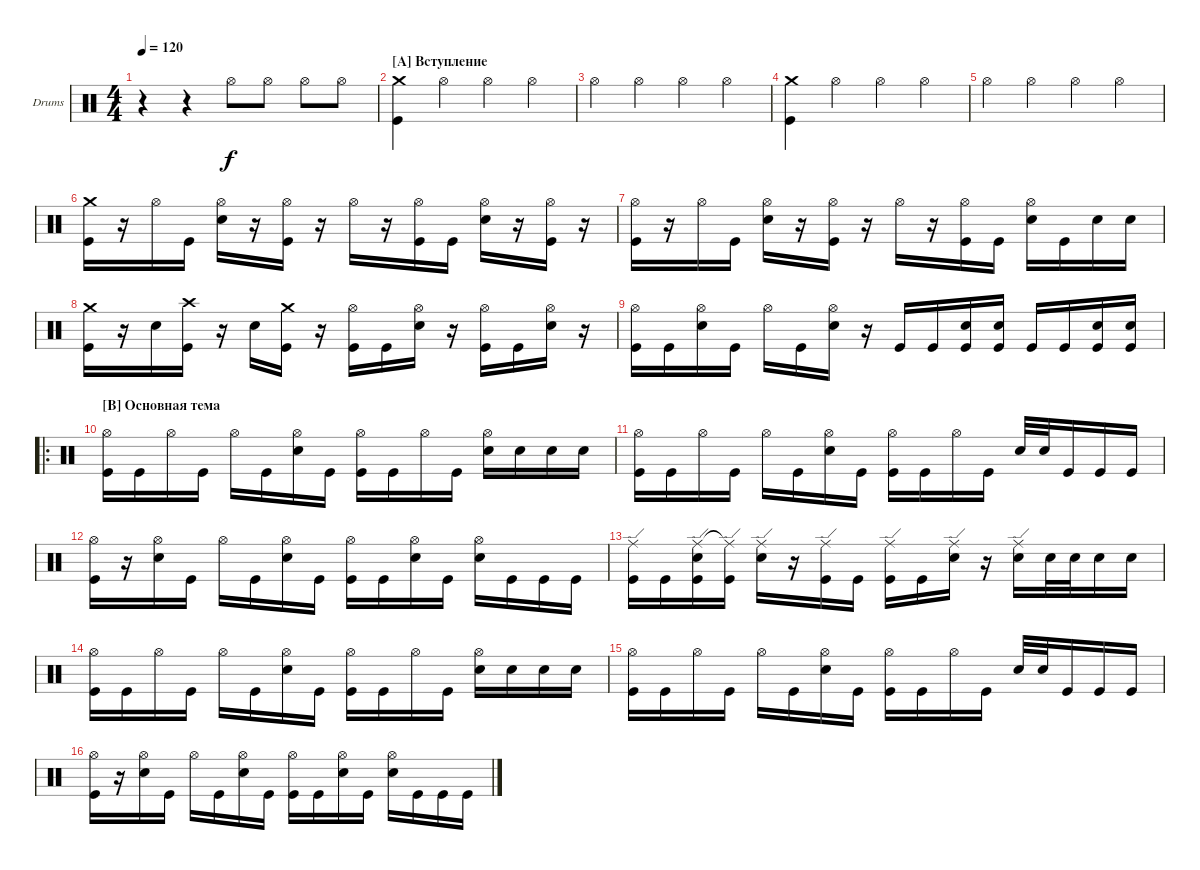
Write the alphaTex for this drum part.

\defaultSystemsLayout 4
\bracketExtendMode groupsimilarinstruments
\firstSystemTrackNameOrientation horizontal
\otherSystemsTrackNameOrientation horizontal
\track ("Drumkit" "Drums") {instrument percussion}
\staff {score}
\articulation defaults
\ts (4 4)
\tempo 120
\clef neutral
\ks c
r.4{dy f} r.4 "Hi-Hat (open)".8 "Hi-Hat (open)".8 "Hi-Hat (open)".8 "Hi-Hat (open)".8 |
\section ("A" "Вступление")
("Kick (hit)" "Crash medium (hit)").4 "Hi-Hat (open)".4 "Hi-Hat (open)".4 "Hi-Hat (open)".4 |
"Hi-Hat (open)".4 "Hi-Hat (open)".4 "Hi-Hat (open)".4 "Hi-Hat (open)".4 |
("Crash medium (hit)" "Kick (hit)").4 "Hi-Hat (open)".4 "Hi-Hat (open)".4 "Hi-Hat (open)".4 |
"Hi-Hat (open)".4 "Hi-Hat (open)".4 "Hi-Hat (open)".4 "Hi-Hat (open)".4 |
("Crash medium (hit)" "Kick (hit)").16 r.16 "Hi-Hat (open)".16 "Kick (hit)".16 ("Hi-Hat (open)" "Snare (hit) 2").16 r.16 ("Hi-Hat (open)" "Kick (hit)").16 r.16 "Hi-Hat (open)".16 r.16 ("Hi-Hat (open)" "Kick (hit)").16 "Kick (hit)".16 ("Hi-Hat (open)" "Snare (hit) 2").16 r.16 ("Hi-Hat (open)" "Kick (hit)").16 r.16 |
("Hi-Hat (open)" "Kick (hit)").16 r.16 "Hi-Hat (open)".16 "Kick (hit)".16 ("Hi-Hat (open)" "Snare (hit) 2").16 r.16 ("Hi-Hat (open)" "Kick (hit)").16 r.16 "Hi-Hat (open)".16 r.16 ("Hi-Hat (open)" "Kick (hit)").16 "Kick (hit)".16 ("Hi-Hat (open)" "Snare (hit) 2").16 "Kick (hit)".16 "Snare (hit) 2".16 "Snare (hit) 2".16 |
("Crash medium (hit)" "Kick (hit)").16 r.16 "Snare (hit) 2".16 ("Crash high (hit)" "Kick (hit)").16 r.16 "Snare (hit) 2".16 ("Crash medium (hit)" "Kick (hit)").16 r.16 ("Hi-Hat (open)" "Kick (hit)").16 "Kick (hit)".16 ("Hi-Hat (open)" "Snare (hit) 2").16 r.16 ("Hi-Hat (open)" "Kick (hit)").16 "Kick (hit)".16 ("Hi-Hat (open)" "Snare (hit) 2").16 r.16 |
("Hi-Hat (open)" "Kick (hit)").16 "Kick (hit)".16 ("Hi-Hat (open)" "Snare (hit) 2").16 "Kick (hit)".16 "Hi-Hat (open)".16 "Kick (hit)".16 ("Hi-Hat (open)" "Snare (hit) 2").16 r.16 "Kick (hit)".16 "Kick (hit)".16 ("Snare (hit) 2" "Kick (hit)").16 ("Snare (hit) 2" "Kick (hit)").16 "Kick (hit)".16 "Kick (hit)".16 ("Snare (hit) 2" "Kick (hit)").16 ("Snare (hit) 2" "Kick (hit)").16 |
\ro
\section ("B" "Основная тема")
("Hi-Hat (open)" "Kick (hit)").16 "Kick (hit)".16 "Hi-Hat (open)".16 "Kick (hit)".16 "Hi-Hat (open)".16 "Kick (hit)".16 ("Hi-Hat (open)" "Snare (hit) 2").16 "Kick (hit)".16 ("Hi-Hat (open)" "Kick (hit)").16 "Kick (hit)".16 "Hi-Hat (open)".16 "Kick (hit)".16 ("Hi-Hat (open)" "Snare (hit) 2").16 "Snare (hit) 2".16 "Snare (hit) 2".16 "Snare (hit) 2".16 |
("Hi-Hat (open)" "Kick (hit)").16 "Kick (hit)".16 "Hi-Hat (open)".16 "Kick (hit)".16 "Hi-Hat (open)".16 "Kick (hit)".16 ("Hi-Hat (open)" "Snare (hit) 2").16 "Kick (hit)".16 ("Hi-Hat (open)" "Kick (hit)").16 "Kick (hit)".16 "Hi-Hat (open)".16 "Kick (hit)".16 "Snare (hit) 2".32 "Snare (hit) 2".32 "Kick (hit)".16 "Kick (hit)".16 "Kick (hit)".16 |
("Hi-Hat (open)" "Kick (hit)").16 r.16 ("Hi-Hat (open)" "Snare (hit) 2").16 "Kick (hit)".16 "Hi-Hat (open)".16 "Kick (hit)".16 ("Hi-Hat (open)" "Snare (hit) 2").16 "Kick (hit)".16 ("Hi-Hat (open)" "Kick (hit)").16 "Kick (hit)".16 ("Hi-Hat (open)" "Snare (hit) 2").16 "Kick (hit)".16 ("Hi-Hat (open)" "Snare (hit) 2").16 "Kick (hit)".16 "Kick (hit)".16 "Kick (hit)".16 |
("Ride (edge)" "Kick (hit)").16 "Kick (hit)".16 ("Ride (edge)" "Snare (hit) 2" "Kick (hit)").16 ("Ride (edge)"{t} "Kick (hit)").16 ("Ride (edge)" "Snare (hit) 2").16 r.16 ("Ride (edge)" "Kick (hit)").16 "Kick (hit)".16 ("Ride (edge)" "Kick (hit)").16 "Kick (hit)".16 ("Ride (edge)" "Snare (hit) 2").16 r.16 ("Ride (edge)" "Snare (hit) 2").16 "Snare (hit) 2".32 "Snare (hit) 2".32 "Snare (hit) 2".16 "Snare (hit) 2".16 |
("Hi-Hat (open)" "Kick (hit)").16 "Kick (hit)".16 "Hi-Hat (open)".16 "Kick (hit)".16 "Hi-Hat (open)".16 "Kick (hit)".16 ("Hi-Hat (open)" "Snare (hit) 2").16 "Kick (hit)".16 ("Hi-Hat (open)" "Kick (hit)").16 "Kick (hit)".16 "Hi-Hat (open)".16 "Kick (hit)".16 ("Hi-Hat (open)" "Snare (hit) 2").16 "Snare (hit) 2".16 "Snare (hit) 2".16 "Snare (hit) 2".16 |
("Hi-Hat (open)" "Kick (hit)").16 "Kick (hit)".16 "Hi-Hat (open)".16 "Kick (hit)".16 "Hi-Hat (open)".16 "Kick (hit)".16 ("Hi-Hat (open)" "Snare (hit) 2").16 "Kick (hit)".16 ("Hi-Hat (open)" "Kick (hit)").16 "Kick (hit)".16 "Hi-Hat (open)".16 "Kick (hit)".16 "Snare (hit) 2".32 "Snare (hit) 2".32 "Kick (hit)".16 "Kick (hit)".16 "Kick (hit)".16 |
("Hi-Hat (open)" "Kick (hit)").16 r.16 ("Hi-Hat (open)" "Snare (hit) 2").16 "Kick (hit)".16 "Hi-Hat (open)".16 "Kick (hit)".16 ("Hi-Hat (open)" "Snare (hit) 2").16 "Kick (hit)".16 ("Hi-Hat (open)" "Kick (hit)").16 "Kick (hit)".16 ("Hi-Hat (open)" "Snare (hit) 2").16 "Kick (hit)".16 ("Hi-Hat (open)" "Snare (hit) 2").16 "Kick (hit)".16 "Kick (hit)".16 "Kick (hit)".16
